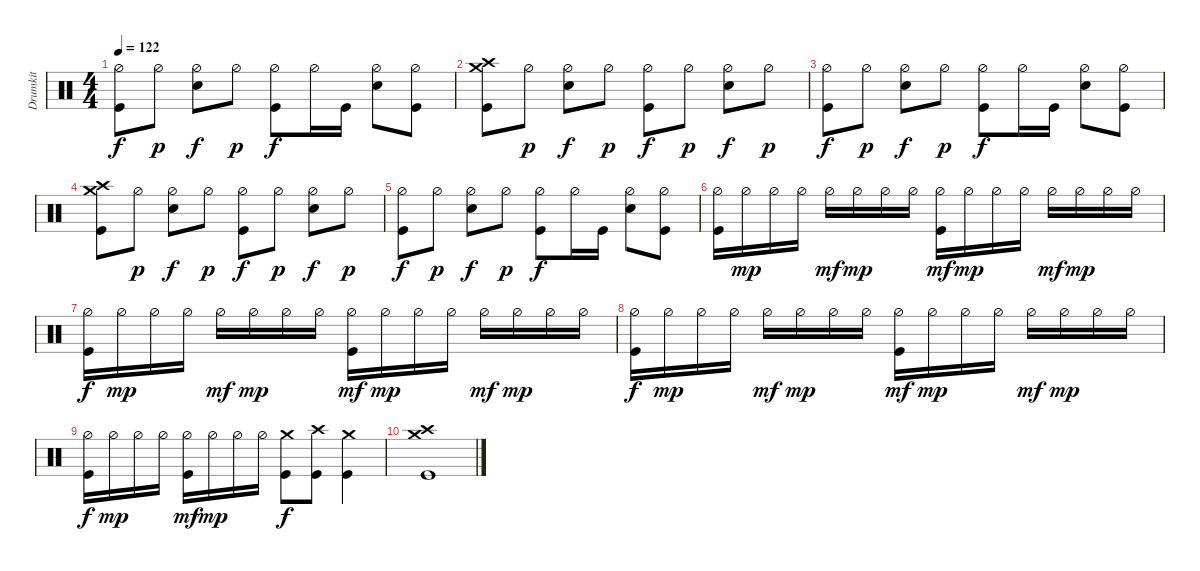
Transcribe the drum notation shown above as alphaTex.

\track ("Drumkit" "Drumkit") {instrument percussion}
\staff {score}
\articulation defaults
\ts (4 4)
\tempo 122
\clef neutral
\ks c
("Hi-Hat (half)" "Kick (hit)").8{dy f} "Hi-Hat (half)".8{dy p} ("Hi-Hat (half)" "Snare (hit) 2").8{dy f} "Hi-Hat (half)".8{dy p} ("Hi-Hat (half)" "Kick (hit)").8{dy f} "Hi-Hat (half)".16 "Kick (hit)".16 ("Hi-Hat (half)" "Snare (hit) 2").8 ("Hi-Hat (half)" "Kick (hit)").8 |
("Kick (hit)" "Crash medium (hit)" "Crash high (hit)").8 "Hi-Hat (half)".8{dy p} ("Hi-Hat (half)" "Snare (hit) 2").8{dy f} "Hi-Hat (half)".8{dy p} ("Hi-Hat (half)" "Kick (hit)").8{dy f} "Hi-Hat (half)".8{dy p} ("Hi-Hat (half)" "Snare (hit) 2").8{dy f} "Hi-Hat (half)".8{dy p} |
("Hi-Hat (half)" "Kick (hit)").8{dy f} "Hi-Hat (half)".8{dy p} ("Hi-Hat (half)" "Snare (hit) 2").8{dy f} "Hi-Hat (half)".8{dy p} ("Hi-Hat (half)" "Kick (hit)").8{dy f} "Hi-Hat (half)".16 "Kick (hit)".16 ("Hi-Hat (half)" "Snare (hit) 2").8 ("Hi-Hat (half)" "Kick (hit)").8 |
("Kick (hit)" "Crash medium (hit)" "Crash high (hit)").8 "Hi-Hat (half)".8{dy p} ("Hi-Hat (half)" "Snare (hit) 2").8{dy f} "Hi-Hat (half)".8{dy p} ("Hi-Hat (half)" "Kick (hit)").8{dy f} "Hi-Hat (half)".8{dy p} ("Hi-Hat (half)" "Snare (hit) 2").8{dy f} "Hi-Hat (half)".8{dy p} |
("Hi-Hat (half)" "Kick (hit)").8{dy f} "Hi-Hat (half)".8{dy p} ("Hi-Hat (half)" "Snare (hit) 2").8{dy f} "Hi-Hat (half)".8{dy p} ("Hi-Hat (half)" "Kick (hit)").8{dy f} "Hi-Hat (half)".16 "Kick (hit)".16 ("Hi-Hat (half)" "Snare (hit) 2").8 ("Hi-Hat (half)" "Kick (hit)").8 |
("Kick (hit)" "Hi-Hat (half)").16 "Hi-Hat (half)".16{dy mp} "Hi-Hat (half)".16 "Hi-Hat (half)".16 "Hi-Hat (half)".16{dy mf} "Hi-Hat (half)".16{dy mp} "Hi-Hat (half)".16 "Hi-Hat (half)".16 ("Hi-Hat (half)" "Kick (hit)").16{dy mf} "Hi-Hat (half)".16{dy mp} "Hi-Hat (half)".16 "Hi-Hat (half)".16 "Hi-Hat (half)".16{dy mf} "Hi-Hat (half)".16{dy mp} "Hi-Hat (half)".16 "Hi-Hat (half)".16 |
("Kick (hit)" "Hi-Hat (half)").16{dy f} "Hi-Hat (half)".16{dy mp} "Hi-Hat (half)".16 "Hi-Hat (half)".16 "Hi-Hat (half)".16{dy mf} "Hi-Hat (half)".16{dy mp} "Hi-Hat (half)".16 "Hi-Hat (half)".16 ("Hi-Hat (half)" "Kick (hit)").16{dy mf} "Hi-Hat (half)".16{dy mp} "Hi-Hat (half)".16 "Hi-Hat (half)".16 "Hi-Hat (half)".16{dy mf} "Hi-Hat (half)".16{dy mp} "Hi-Hat (half)".16 "Hi-Hat (half)".16 |
("Kick (hit)" "Hi-Hat (half)").16{dy f} "Hi-Hat (half)".16{dy mp} "Hi-Hat (half)".16 "Hi-Hat (half)".16 "Hi-Hat (half)".16{dy mf} "Hi-Hat (half)".16{dy mp} "Hi-Hat (half)".16 "Hi-Hat (half)".16 ("Hi-Hat (half)" "Kick (hit)").16{dy mf} "Hi-Hat (half)".16{dy mp} "Hi-Hat (half)".16 "Hi-Hat (half)".16 "Hi-Hat (half)".16{dy mf} "Hi-Hat (half)".16{dy mp} "Hi-Hat (half)".16 "Hi-Hat (half)".16 |
("Kick (hit)" "Hi-Hat (half)").16{dy f} "Hi-Hat (half)".16{dy mp} "Hi-Hat (half)".16 "Hi-Hat (half)".16 ("Hi-Hat (half)" "Kick (hit)").16{dy mf} "Hi-Hat (half)".16{dy mp} "Hi-Hat (half)".16 "Hi-Hat (half)".16 ("Kick (hit)" "Crash medium (hit)").8{dy f} ("Kick (hit)" "Crash high (hit)").8 ("Kick (hit)" "Crash medium (hit)").4 |
("Kick (hit)" "Crash medium (hit)" "Crash high (hit)").1
